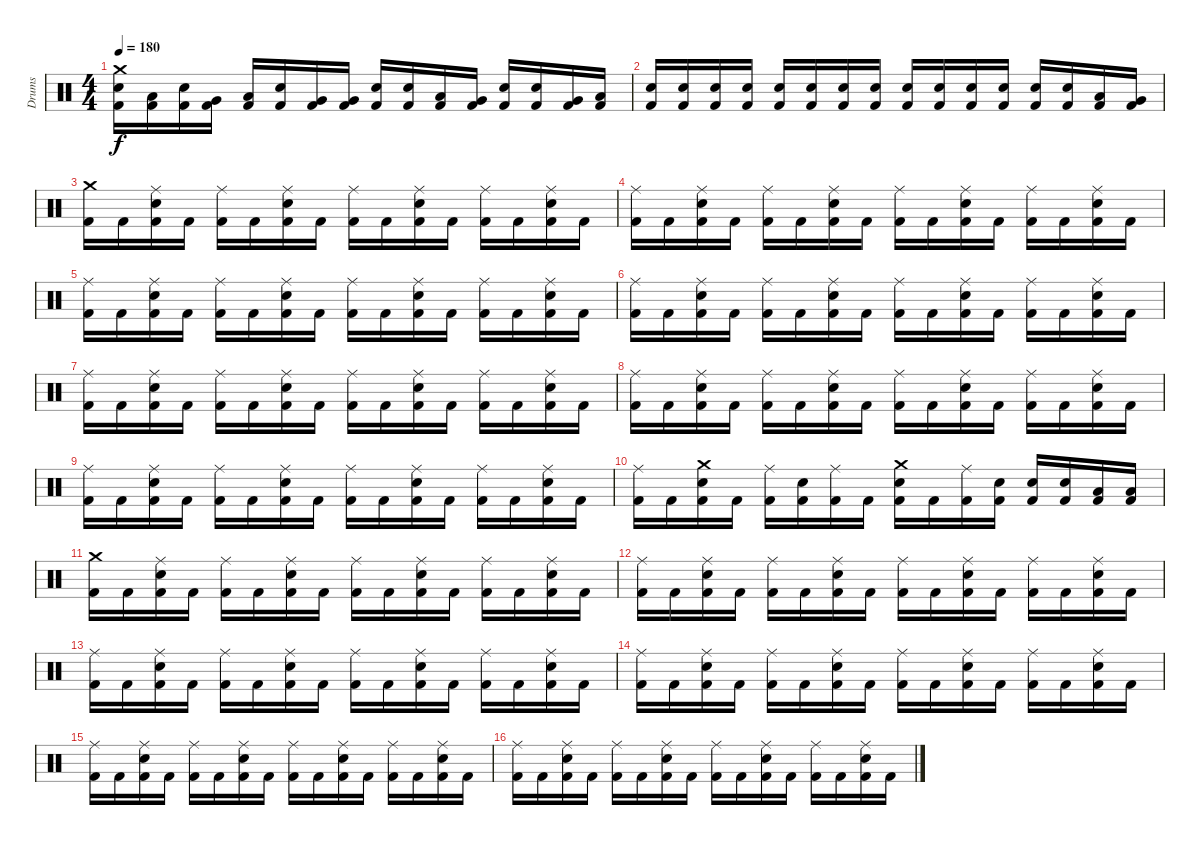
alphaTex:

\track ("Drums" "Drums") {instrument percussion}
\staff {score}
\articulation defaults
\ts (4 4)
\tempo 180
\clef neutral
\ks c
("Crash medium (hit)" "Snare (hit) 2" "Kick (hit) 2").16{dy f} ("Low Tom (hit)" "Kick (hit) 2").16 ("Snare (hit) 2" "Kick (hit) 2").16 ("Very Low Tom (hit)" "Kick (hit) 2").16 ("Low Floor Tom (hit)" "Kick (hit) 2").16 ("Snare (hit) 2" "Kick (hit) 2").16 ("Very Low Tom (hit)" "Kick (hit) 2").16 ("Very Low Tom (hit)" "Kick (hit) 2").16 ("Snare (hit) 2" "Kick (hit) 2").16 ("Snare (hit) 2" "Kick (hit) 2").16 ("Low Tom (hit)" "Kick (hit) 2").16 ("Very Low Tom (hit)" "Kick (hit) 2").16 ("Snare (hit) 2" "Kick (hit) 2").16 ("Snare (hit) 2" "Kick (hit) 2").16 ("Very Low Tom (hit)" "Kick (hit) 2").16 ("Low Floor Tom (hit)" "Kick (hit) 2").16 |
("Snare (hit) 2" "Kick (hit) 2").16 ("Snare (hit) 2" "Kick (hit) 2").16 ("Snare (hit) 2" "Kick (hit) 2").16 ("Snare (hit) 2" "Kick (hit) 2").16 ("Snare (hit) 2" "Kick (hit) 2").16 ("Snare (hit) 2" "Kick (hit) 2").16 ("Snare (hit) 2" "Kick (hit) 2").16 ("Snare (hit) 2" "Kick (hit) 2").16 ("Snare (hit) 2" "Kick (hit) 2").16 ("Snare (hit) 2" "Kick (hit) 2").16 ("Snare (hit) 2" "Kick (hit) 2").16 ("Snare (hit) 2" "Kick (hit) 2").16 ("Snare (hit) 2" "Kick (hit) 2").16 ("Snare (hit) 2" "Kick (hit) 2").16 ("Low Tom (hit)" "Kick (hit) 2").16 ("Very Low Tom (hit)" "Kick (hit) 2").16 |
("Crash medium (hit)" "Kick (hit) 2").16 "Kick (hit) 2".16 ("Ride (middle)" "Snare (hit) 2" "Kick (hit) 2").16 "Kick (hit) 2".16 ("Ride (middle)" "Kick (hit) 2").16 "Kick (hit) 2".16 ("Ride (middle)" "Snare (hit) 2" "Kick (hit) 2").16 "Kick (hit) 2".16 ("Ride (middle)" "Kick (hit) 2").16 "Kick (hit) 2".16 ("Ride (middle)" "Snare (hit) 2" "Kick (hit) 2").16 "Kick (hit) 2".16 ("Ride (middle)" "Kick (hit) 2").16 "Kick (hit) 2".16 ("Ride (middle)" "Snare (hit) 2" "Kick (hit) 2").16 "Kick (hit) 2".16 |
("Ride (middle)" "Kick (hit) 2").16 "Kick (hit) 2".16 ("Ride (middle)" "Snare (hit) 2" "Kick (hit) 2").16 "Kick (hit) 2".16 ("Ride (middle)" "Kick (hit) 2").16 "Kick (hit) 2".16 ("Ride (middle)" "Snare (hit) 2" "Kick (hit) 2").16 "Kick (hit) 2".16 ("Ride (middle)" "Kick (hit) 2").16 "Kick (hit) 2".16 ("Ride (middle)" "Snare (hit) 2" "Kick (hit) 2").16 "Kick (hit) 2".16 ("Ride (middle)" "Kick (hit) 2").16 "Kick (hit) 2".16 ("Ride (middle)" "Snare (hit) 2" "Kick (hit) 2").16 "Kick (hit) 2".16 |
("Ride (middle)" "Kick (hit) 2").16 "Kick (hit) 2".16 ("Ride (middle)" "Snare (hit) 2" "Kick (hit) 2").16 "Kick (hit) 2".16 ("Ride (middle)" "Kick (hit) 2").16 "Kick (hit) 2".16 ("Ride (middle)" "Snare (hit) 2" "Kick (hit) 2").16 "Kick (hit) 2".16 ("Ride (middle)" "Kick (hit) 2").16 "Kick (hit) 2".16 ("Ride (middle)" "Snare (hit) 2" "Kick (hit) 2").16 "Kick (hit) 2".16 ("Ride (middle)" "Kick (hit) 2").16 "Kick (hit) 2".16 ("Ride (middle)" "Snare (hit) 2" "Kick (hit) 2").16 "Kick (hit) 2".16 |
("Ride (middle)" "Kick (hit) 2").16 "Kick (hit) 2".16 ("Ride (middle)" "Snare (hit) 2" "Kick (hit) 2").16 "Kick (hit) 2".16 ("Ride (middle)" "Kick (hit) 2").16 "Kick (hit) 2".16 ("Ride (middle)" "Snare (hit) 2" "Kick (hit) 2").16 "Kick (hit) 2".16 ("Ride (middle)" "Kick (hit) 2").16 "Kick (hit) 2".16 ("Ride (middle)" "Snare (hit) 2" "Kick (hit) 2").16 "Kick (hit) 2".16 ("Ride (middle)" "Kick (hit) 2").16 "Kick (hit) 2".16 ("Ride (middle)" "Snare (hit) 2" "Kick (hit) 2").16 "Kick (hit) 2".16 |
("Ride (middle)" "Kick (hit) 2").16 "Kick (hit) 2".16 ("Ride (middle)" "Snare (hit) 2" "Kick (hit) 2").16 "Kick (hit) 2".16 ("Ride (middle)" "Kick (hit) 2").16 "Kick (hit) 2".16 ("Ride (middle)" "Snare (hit) 2" "Kick (hit) 2").16 "Kick (hit) 2".16 ("Ride (middle)" "Kick (hit) 2").16 "Kick (hit) 2".16 ("Ride (middle)" "Snare (hit) 2" "Kick (hit) 2").16 "Kick (hit) 2".16 ("Ride (middle)" "Kick (hit) 2").16 "Kick (hit) 2".16 ("Ride (middle)" "Snare (hit) 2" "Kick (hit) 2").16 "Kick (hit) 2".16 |
("Ride (middle)" "Kick (hit) 2").16 "Kick (hit) 2".16 ("Ride (middle)" "Snare (hit) 2" "Kick (hit) 2").16 "Kick (hit) 2".16 ("Ride (middle)" "Kick (hit) 2").16 "Kick (hit) 2".16 ("Ride (middle)" "Snare (hit) 2" "Kick (hit) 2").16 "Kick (hit) 2".16 ("Ride (middle)" "Kick (hit) 2").16 "Kick (hit) 2".16 ("Ride (middle)" "Snare (hit) 2" "Kick (hit) 2").16 "Kick (hit) 2".16 ("Ride (middle)" "Kick (hit) 2").16 "Kick (hit) 2".16 ("Ride (middle)" "Snare (hit) 2" "Kick (hit) 2").16 "Kick (hit) 2".16 |
("Ride (middle)" "Kick (hit) 2").16 "Kick (hit) 2".16 ("Ride (middle)" "Snare (hit) 2" "Kick (hit) 2").16 "Kick (hit) 2".16 ("Ride (middle)" "Kick (hit) 2").16 "Kick (hit) 2".16 ("Ride (middle)" "Snare (hit) 2" "Kick (hit) 2").16 "Kick (hit) 2".16 ("Ride (middle)" "Kick (hit) 2").16 "Kick (hit) 2".16 ("Ride (middle)" "Snare (hit) 2" "Kick (hit) 2").16 "Kick (hit) 2".16 ("Ride (middle)" "Kick (hit) 2").16 "Kick (hit) 2".16 ("Ride (middle)" "Snare (hit) 2" "Kick (hit) 2").16 "Kick (hit) 2".16 |
("Ride (middle)" "Kick (hit) 2").16 "Kick (hit) 2".16 ("Crash medium (hit)" "Snare (hit) 2" "Kick (hit) 2").16 "Kick (hit) 2".16 ("Ride (middle)" "Kick (hit) 2").16 ("Snare (hit) 2" "Kick (hit) 2").16 ("Ride (middle)" "Kick (hit) 2").16 "Kick (hit) 2".16 ("Crash medium (hit)" "Snare (hit) 2" "Kick (hit) 2").16 "Kick (hit) 2".16 ("Ride (middle)" "Kick (hit) 2").16 ("Snare (hit) 2" "Kick (hit) 2").16 ("Snare (hit) 2" "Kick (hit) 2").16 ("Snare (hit) 2" "Kick (hit) 2").16 ("Low Tom (hit)" "Kick (hit) 2").16 ("Low Tom (hit)" "Kick (hit) 2").16 |
("Crash medium (hit)" "Kick (hit) 2").16 "Kick (hit) 2".16 ("Ride (middle)" "Snare (hit) 2" "Kick (hit) 2").16 "Kick (hit) 2".16 ("Ride (middle)" "Kick (hit) 2").16 "Kick (hit) 2".16 ("Ride (middle)" "Snare (hit) 2" "Kick (hit) 2").16 "Kick (hit) 2".16 ("Ride (middle)" "Kick (hit) 2").16 "Kick (hit) 2".16 ("Ride (middle)" "Snare (hit) 2" "Kick (hit) 2").16 "Kick (hit) 2".16 ("Ride (middle)" "Kick (hit) 2").16 "Kick (hit) 2".16 ("Ride (middle)" "Snare (hit) 2" "Kick (hit) 2").16 "Kick (hit) 2".16 |
("Ride (middle)" "Kick (hit) 2").16 "Kick (hit) 2".16 ("Ride (middle)" "Snare (hit) 2" "Kick (hit) 2").16 "Kick (hit) 2".16 ("Ride (middle)" "Kick (hit) 2").16 "Kick (hit) 2".16 ("Ride (middle)" "Snare (hit) 2" "Kick (hit) 2").16 "Kick (hit) 2".16 ("Ride (middle)" "Kick (hit) 2").16 "Kick (hit) 2".16 ("Ride (middle)" "Snare (hit) 2" "Kick (hit) 2").16 "Kick (hit) 2".16 ("Ride (middle)" "Kick (hit) 2").16 "Kick (hit) 2".16 ("Ride (middle)" "Snare (hit) 2" "Kick (hit) 2").16 "Kick (hit) 2".16 |
("Ride (middle)" "Kick (hit) 2").16 "Kick (hit) 2".16 ("Ride (middle)" "Snare (hit) 2" "Kick (hit) 2").16 "Kick (hit) 2".16 ("Ride (middle)" "Kick (hit) 2").16 "Kick (hit) 2".16 ("Ride (middle)" "Snare (hit) 2" "Kick (hit) 2").16 "Kick (hit) 2".16 ("Ride (middle)" "Kick (hit) 2").16 "Kick (hit) 2".16 ("Ride (middle)" "Snare (hit) 2" "Kick (hit) 2").16 "Kick (hit) 2".16 ("Ride (middle)" "Kick (hit) 2").16 "Kick (hit) 2".16 ("Ride (middle)" "Snare (hit) 2" "Kick (hit) 2").16 "Kick (hit) 2".16 |
("Ride (middle)" "Kick (hit) 2").16 "Kick (hit) 2".16 ("Ride (middle)" "Snare (hit) 2" "Kick (hit) 2").16 "Kick (hit) 2".16 ("Ride (middle)" "Kick (hit) 2").16 "Kick (hit) 2".16 ("Ride (middle)" "Snare (hit) 2" "Kick (hit) 2").16 "Kick (hit) 2".16 ("Ride (middle)" "Kick (hit) 2").16 "Kick (hit) 2".16 ("Ride (middle)" "Snare (hit) 2" "Kick (hit) 2").16 "Kick (hit) 2".16 ("Ride (middle)" "Kick (hit) 2").16 "Kick (hit) 2".16 ("Ride (middle)" "Snare (hit) 2" "Kick (hit) 2").16 "Kick (hit) 2".16 |
("Ride (middle)" "Kick (hit) 2").16 "Kick (hit) 2".16 ("Ride (middle)" "Snare (hit) 2" "Kick (hit) 2").16 "Kick (hit) 2".16 ("Ride (middle)" "Kick (hit) 2").16 "Kick (hit) 2".16 ("Ride (middle)" "Snare (hit) 2" "Kick (hit) 2").16 "Kick (hit) 2".16 ("Ride (middle)" "Kick (hit) 2").16 "Kick (hit) 2".16 ("Ride (middle)" "Snare (hit) 2" "Kick (hit) 2").16 "Kick (hit) 2".16 ("Ride (middle)" "Kick (hit) 2").16 "Kick (hit) 2".16 ("Ride (middle)" "Snare (hit) 2" "Kick (hit) 2").16 "Kick (hit) 2".16 |
("Ride (middle)" "Kick (hit) 2").16 "Kick (hit) 2".16 ("Ride (middle)" "Snare (hit) 2" "Kick (hit) 2").16 "Kick (hit) 2".16 ("Ride (middle)" "Kick (hit) 2").16 "Kick (hit) 2".16 ("Ride (middle)" "Snare (hit) 2" "Kick (hit) 2").16 "Kick (hit) 2".16 ("Ride (middle)" "Kick (hit) 2").16 "Kick (hit) 2".16 ("Ride (middle)" "Snare (hit) 2" "Kick (hit) 2").16 "Kick (hit) 2".16 ("Ride (middle)" "Kick (hit) 2").16 "Kick (hit) 2".16 ("Ride (middle)" "Snare (hit) 2" "Kick (hit) 2").16 "Kick (hit) 2".16
